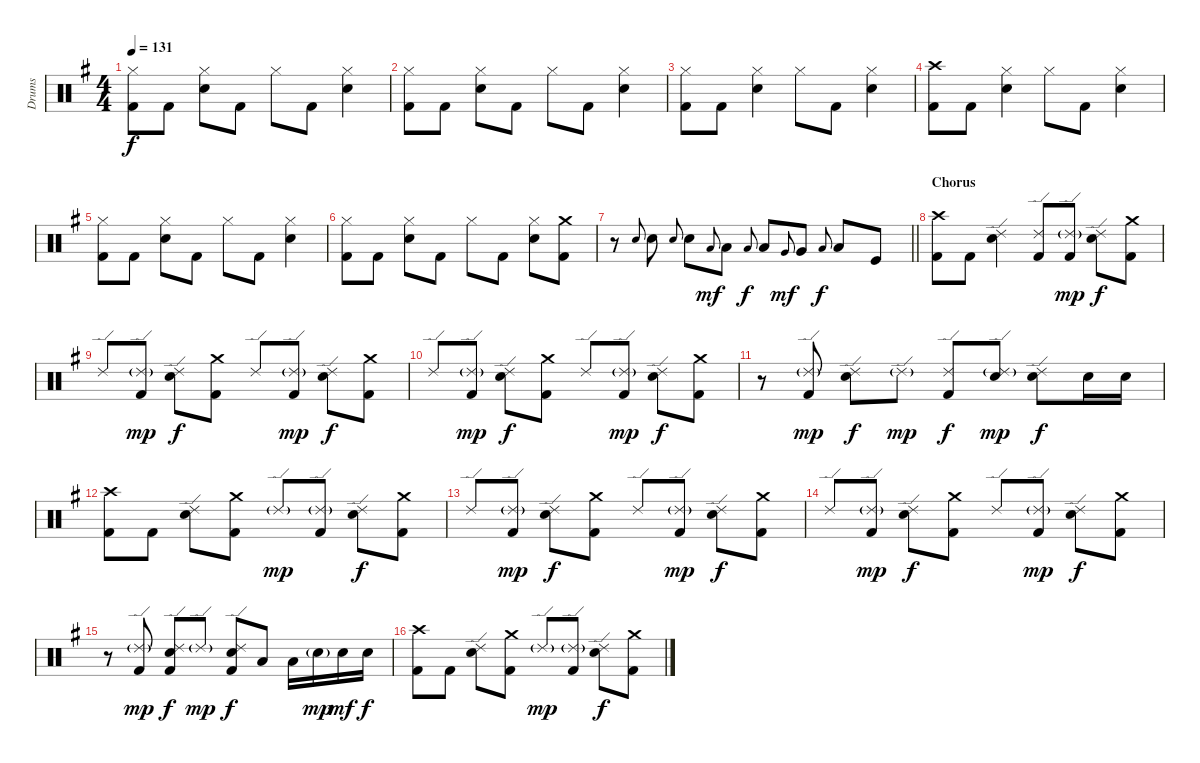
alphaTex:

\track ("Drums" "Drums") {instrument percussion}
\staff {score}
\articulation defaults
\ts (4 4)
\tempo 131
\clef neutral
\ks g
("Hi-Hat (closed)" "Kick (hit) 2").8{dy f} "Kick (hit) 2".8 ("Hi-Hat (closed)" "Electric Snare (hit)").8 "Kick (hit) 2".8 "Hi-Hat (closed)".8 "Kick (hit) 2".8 ("Hi-Hat (closed)" "Electric Snare (hit)").4 |
("Hi-Hat (closed)" "Kick (hit) 2").8 "Kick (hit) 2".8 ("Hi-Hat (closed)" "Electric Snare (hit)").8 "Kick (hit) 2".8 "Hi-Hat (closed)".8 "Kick (hit) 2".8 ("Hi-Hat (closed)" "Electric Snare (hit)").4 |
("Hi-Hat (closed)" "Kick (hit) 2").8 "Kick (hit) 2".8 ("Hi-Hat (closed)" "Electric Snare (hit)").4 "Hi-Hat (closed)".8 "Kick (hit) 2".8 ("Hi-Hat (closed)" "Electric Snare (hit)").4 |
("Crash high (hit)" "Kick (hit) 2").8 "Kick (hit) 2".8 ("Hi-Hat (closed)" "Electric Snare (hit)").4 "Hi-Hat (closed)".8 "Kick (hit) 2".8 ("Hi-Hat (closed)" "Electric Snare (hit)").4 |
("Hi-Hat (closed)" "Kick (hit) 2").8 "Kick (hit) 2".8 ("Hi-Hat (closed)" "Electric Snare (hit)").8 "Kick (hit) 2".8 "Hi-Hat (closed)".8 "Kick (hit) 2".8 ("Hi-Hat (closed)" "Electric Snare (hit)").4 |
("Hi-Hat (closed)" "Kick (hit) 2").8 "Kick (hit) 2".8 ("Hi-Hat (closed)" "Electric Snare (hit)").8 "Kick (hit) 2".8 "Hi-Hat (closed)".8 "Kick (hit) 2".8 ("Hi-Hat (closed)" "Electric Snare (hit)").8 ("Crash medium (hit)" "Kick (hit) 2").8 |
\barLineRight lightlight
r.8 "Electric Snare (hit)".8{gr onbeat} "Electric Snare (hit)".8 "Electric Snare (hit)".8{gr onbeat} "Electric Snare (hit)".8 "Low Tom (hit)".8{gr onbeat dy mf} "Low Tom (hit)".8 "Low Tom (hit)".8{gr onbeat dy f} "Low Tom (hit)".8 "Very Low Tom (hit)".8{gr onbeat dy mf} "Very Low Tom (hit)".8 "Low Floor Tom (hit)".8{gr onbeat dy f} "Low Floor Tom (hit)".8 "Kick (hit)".8 |
\section ("" "Chorus")
("Crash high (hit)" "Kick (hit) 2").8 "Kick (hit) 2".8 ("Ride (edge) 2" "Electric Snare (hit)").4 ("Ride (edge) 2" "Kick (hit) 2").8 ("Ride (edge) 2"{g} "Kick (hit) 2").8{dy mp} ("Ride (edge) 2" "Electric Snare (hit)").8{dy f} ("Crash medium (hit)" "Kick (hit) 2").8 |
"Ride (edge) 2".8 ("Ride (edge) 2"{g} "Kick (hit) 2").8{dy mp} ("Ride (edge) 2" "Electric Snare (hit)").8{dy f} ("Crash medium (hit)" "Kick (hit) 2").8 "Ride (edge) 2".8 ("Ride (edge) 2"{g} "Kick (hit) 2").8{dy mp} ("Ride (edge) 2" "Electric Snare (hit)").8{dy f} ("Crash medium (hit)" "Kick (hit) 2").8 |
"Ride (edge) 2".8 ("Ride (edge) 2"{g} "Kick (hit) 2").8{dy mp} ("Ride (edge) 2" "Electric Snare (hit)").8{dy f} ("Crash medium (hit)" "Kick (hit) 2").8 "Ride (edge) 2".8 ("Ride (edge) 2"{g} "Kick (hit) 2").8{dy mp} ("Ride (edge) 2" "Electric Snare (hit)").8{dy f} ("Crash medium (hit)" "Kick (hit) 2").8 |
r.8 ("Ride (edge) 2"{g} "Kick (hit) 2").8{dy mp} ("Ride (edge) 2" "Electric Snare (hit)").8{dy f} "Ride (edge) 2"{g}.8{dy mp} ("Ride (edge) 2" "Kick (hit) 2").8{dy f} ("Ride (edge) 2"{g} "Electric Snare (hit)").8{dy mp} ("Ride (edge) 2" "Electric Snare (hit)").8{dy f} "Electric Snare (hit)".16 "Electric Snare (hit)".16 |
("Crash high (hit)" "Kick (hit) 2").8 "Kick (hit) 2".8 ("Ride (edge) 2" "Electric Snare (hit)").8 ("Crash medium (hit)" "Kick (hit) 2").8 "Ride (edge) 2"{g}.8{dy mp} ("Ride (edge) 2"{g} "Kick (hit) 2").8 ("Ride (edge) 2" "Electric Snare (hit)").8{dy f} ("Crash medium (hit)" "Kick (hit) 2").8 |
"Ride (edge) 2".8 ("Ride (edge) 2"{g} "Kick (hit) 2").8{dy mp} ("Ride (edge) 2" "Electric Snare (hit)").8{dy f} ("Crash medium (hit)" "Kick (hit) 2").8 "Ride (edge) 2".8 ("Ride (edge) 2"{g} "Kick (hit) 2").8{dy mp} ("Ride (edge) 2" "Electric Snare (hit)").8{dy f} ("Crash medium (hit)" "Kick (hit) 2").8 |
"Ride (edge) 2".8 ("Ride (edge) 2"{g} "Kick (hit) 2").8{dy mp} ("Ride (edge) 2" "Electric Snare (hit)").8{dy f} ("Crash medium (hit)" "Kick (hit) 2").8 "Ride (edge) 2".8 ("Ride (edge) 2"{g} "Kick (hit) 2").8{dy mp} ("Ride (edge) 2" "Electric Snare (hit)").8{dy f} ("Crash medium (hit)" "Kick (hit) 2").8 |
r.8 ("Ride (edge) 2"{g} "Kick (hit) 2").8{dy mp} ("Ride (edge) 2" "Electric Snare (hit)" "Kick (hit) 2").8{dy f} "Ride (edge) 2"{g}.8{dy mp} ("Ride (edge) 2" "Electric Snare (hit)" "Kick (hit) 2").8{dy f} "Low Tom (hit)".8 "Low Tom (hit)".16 "Electric Snare (hit)"{g}.16{dy mp} "Electric Snare (hit)".16{dy mf} "Electric Snare (hit)".16{dy f} |
("Crash high (hit)" "Kick (hit) 2").8 "Kick (hit) 2".8 ("Ride (edge) 2" "Electric Snare (hit)").8 ("Crash medium (hit)" "Kick (hit) 2").8 "Ride (edge) 2"{g}.8{dy mp} ("Ride (edge) 2"{g} "Kick (hit) 2").8 ("Ride (edge) 2" "Electric Snare (hit)").8{dy f} ("Crash medium (hit)" "Kick (hit) 2").8
